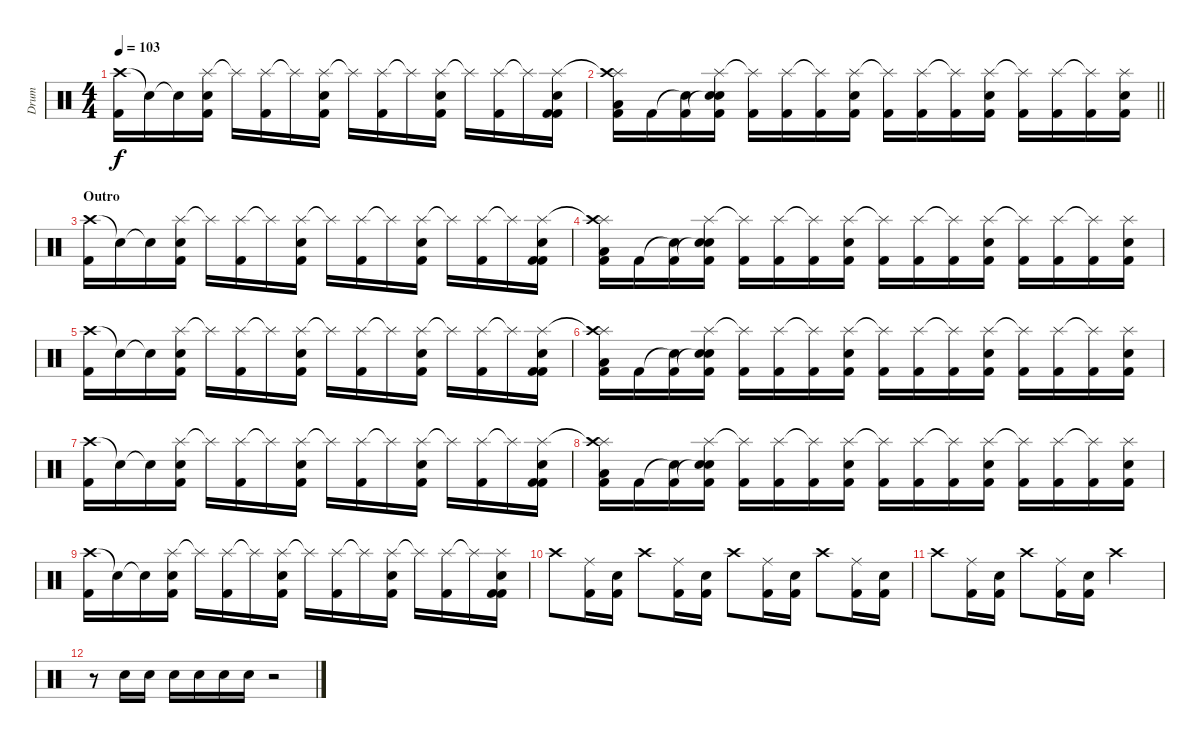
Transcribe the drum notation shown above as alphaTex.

\track ("Drum" "Drum") {instrument percussion}
\staff {score}
\articulation defaults
\ts (4 4)
\tempo 103
\clef neutral
\ks c
("Crash high (hit)" "Kick (hit) 2").16{dy f} "Snare (hit)"{t}.16 "Snare (hit)"{t}.16 ("Splash (hit)" "Electric Snare (hit)" "Kick (hit) 2").16 "Splash (hit)"{t}.16 ("Splash (hit)" "Kick (hit) 2").16 "Splash (hit)"{t}.16 ("Splash (hit)" "Electric Snare (hit)" "Kick (hit) 2").16 "Splash (hit)"{t}.16 ("Splash (hit)" "Kick (hit) 2").16 "Splash (hit)"{t}.16 ("Splash (hit)" "Electric Snare (hit)" "Kick (hit) 2").16 "Splash (hit)"{t}.16 ("Splash (hit)" "Kick (hit) 2").16 "Splash (hit)"{t}.16 ("Splash (hit)" "Electric Snare (hit)" "Kick (hit) 2" "Kick (hit) 2").16 |
\barLineRight lightlight
("Splash (hit)"{t} "Crash high (hit)" "Low Tom (hit)" "Kick (hit) 2").16 "Kick (hit) 2".16 ("Snare (hit)"{t} "Kick (hit) 2").16 ("Splash (hit)" "Snare (hit)"{t} "Electric Snare (hit)" "Kick (hit) 2").16 ("Splash (hit)"{t} "Kick (hit) 2").16 ("Splash (hit)" "Kick (hit) 2").16 ("Splash (hit)"{t} "Kick (hit) 2").16 ("Splash (hit)" "Electric Snare (hit)" "Kick (hit) 2").16 ("Splash (hit)"{t} "Kick (hit) 2").16 ("Splash (hit)" "Kick (hit) 2").16 ("Splash (hit)"{t} "Kick (hit) 2").16 ("Splash (hit)" "Electric Snare (hit)" "Kick (hit) 2").16 ("Splash (hit)"{t} "Kick (hit) 2").16 ("Splash (hit)" "Kick (hit) 2").16 ("Splash (hit)"{t} "Kick (hit) 2").16 ("Splash (hit)" "Electric Snare (hit)" "Kick (hit) 2").16 |
\section ("" "Outro")
("Crash high (hit)" "Kick (hit) 2").16 "Snare (hit)"{t}.16 "Snare (hit)"{t}.16 ("Splash (hit)" "Electric Snare (hit)" "Kick (hit) 2").16 "Splash (hit)"{t}.16 ("Splash (hit)" "Kick (hit) 2").16 "Splash (hit)"{t}.16 ("Splash (hit)" "Electric Snare (hit)" "Kick (hit) 2").16 "Splash (hit)"{t}.16 ("Splash (hit)" "Kick (hit) 2").16 "Splash (hit)"{t}.16 ("Splash (hit)" "Electric Snare (hit)" "Kick (hit) 2").16 "Splash (hit)"{t}.16 ("Splash (hit)" "Kick (hit) 2").16 "Splash (hit)"{t}.16 ("Splash (hit)" "Electric Snare (hit)" "Kick (hit) 2" "Kick (hit) 2").16 |
("Splash (hit)"{t} "Crash high (hit)" "Low Tom (hit)" "Kick (hit) 2").16 "Kick (hit) 2".16 ("Snare (hit)"{t} "Kick (hit) 2").16 ("Splash (hit)" "Snare (hit)"{t} "Electric Snare (hit)" "Kick (hit) 2").16 ("Splash (hit)"{t} "Kick (hit) 2").16 ("Splash (hit)" "Kick (hit) 2").16 ("Splash (hit)"{t} "Kick (hit) 2").16 ("Splash (hit)" "Electric Snare (hit)" "Kick (hit) 2").16 ("Splash (hit)"{t} "Kick (hit) 2").16 ("Splash (hit)" "Kick (hit) 2").16 ("Splash (hit)"{t} "Kick (hit) 2").16 ("Splash (hit)" "Electric Snare (hit)" "Kick (hit) 2").16 ("Splash (hit)"{t} "Kick (hit) 2").16 ("Splash (hit)" "Kick (hit) 2").16 ("Splash (hit)"{t} "Kick (hit) 2").16 ("Splash (hit)" "Electric Snare (hit)" "Kick (hit) 2").16 |
("Crash high (hit)" "Kick (hit) 2").16 "Snare (hit)"{t}.16 "Snare (hit)"{t}.16 ("Splash (hit)" "Electric Snare (hit)" "Kick (hit) 2").16 "Splash (hit)"{t}.16 ("Splash (hit)" "Kick (hit) 2").16 "Splash (hit)"{t}.16 ("Splash (hit)" "Electric Snare (hit)" "Kick (hit) 2").16 "Splash (hit)"{t}.16 ("Splash (hit)" "Kick (hit) 2").16 "Splash (hit)"{t}.16 ("Splash (hit)" "Electric Snare (hit)" "Kick (hit) 2").16 "Splash (hit)"{t}.16 ("Splash (hit)" "Kick (hit) 2").16 "Splash (hit)"{t}.16 ("Splash (hit)" "Electric Snare (hit)" "Kick (hit) 2" "Kick (hit) 2").16 |
("Splash (hit)"{t} "Crash high (hit)" "Low Tom (hit)" "Kick (hit) 2").16 "Kick (hit) 2".16 ("Snare (hit)"{t} "Kick (hit) 2").16 ("Splash (hit)" "Snare (hit)"{t} "Electric Snare (hit)" "Kick (hit) 2").16 ("Splash (hit)"{t} "Kick (hit) 2").16 ("Splash (hit)" "Kick (hit) 2").16 ("Splash (hit)"{t} "Kick (hit) 2").16 ("Splash (hit)" "Electric Snare (hit)" "Kick (hit) 2").16 ("Splash (hit)"{t} "Kick (hit) 2").16 ("Splash (hit)" "Kick (hit) 2").16 ("Splash (hit)"{t} "Kick (hit) 2").16 ("Splash (hit)" "Electric Snare (hit)" "Kick (hit) 2").16 ("Splash (hit)"{t} "Kick (hit) 2").16 ("Splash (hit)" "Kick (hit) 2").16 ("Splash (hit)"{t} "Kick (hit) 2").16 ("Splash (hit)" "Electric Snare (hit)" "Kick (hit) 2").16 |
("Crash high (hit)" "Kick (hit) 2").16 "Snare (hit)"{t}.16 "Snare (hit)"{t}.16 ("Splash (hit)" "Electric Snare (hit)" "Kick (hit) 2").16 "Splash (hit)"{t}.16 ("Splash (hit)" "Kick (hit) 2").16 "Splash (hit)"{t}.16 ("Splash (hit)" "Electric Snare (hit)" "Kick (hit) 2").16 "Splash (hit)"{t}.16 ("Splash (hit)" "Kick (hit) 2").16 "Splash (hit)"{t}.16 ("Splash (hit)" "Electric Snare (hit)" "Kick (hit) 2").16 "Splash (hit)"{t}.16 ("Splash (hit)" "Kick (hit) 2").16 "Splash (hit)"{t}.16 ("Splash (hit)" "Electric Snare (hit)" "Kick (hit) 2" "Kick (hit) 2").16 |
("Splash (hit)"{t} "Crash high (hit)" "Low Tom (hit)" "Kick (hit) 2").16 "Kick (hit) 2".16 ("Snare (hit)"{t} "Kick (hit) 2").16 ("Splash (hit)" "Snare (hit)"{t} "Electric Snare (hit)" "Kick (hit) 2").16 ("Splash (hit)"{t} "Kick (hit) 2").16 ("Splash (hit)" "Kick (hit) 2").16 ("Splash (hit)"{t} "Kick (hit) 2").16 ("Splash (hit)" "Electric Snare (hit)" "Kick (hit) 2").16 ("Splash (hit)"{t} "Kick (hit) 2").16 ("Splash (hit)" "Kick (hit) 2").16 ("Splash (hit)"{t} "Kick (hit) 2").16 ("Splash (hit)" "Electric Snare (hit)" "Kick (hit) 2").16 ("Splash (hit)"{t} "Kick (hit) 2").16 ("Splash (hit)" "Kick (hit) 2").16 ("Splash (hit)"{t} "Kick (hit) 2").16 ("Splash (hit)" "Electric Snare (hit)" "Kick (hit) 2").16 |
("Crash high (hit)" "Kick (hit) 2").16 "Snare (hit)"{t}.16 "Snare (hit)"{t}.16 ("Splash (hit)" "Electric Snare (hit)" "Kick (hit) 2").16 "Splash (hit)"{t}.16 ("Splash (hit)" "Kick (hit) 2").16 "Splash (hit)"{t}.16 ("Splash (hit)" "Electric Snare (hit)" "Kick (hit) 2").16 "Splash (hit)"{t}.16 ("Splash (hit)" "Kick (hit) 2").16 "Splash (hit)"{t}.16 ("Splash (hit)" "Electric Snare (hit)" "Kick (hit) 2").16 "Splash (hit)"{t}.16 ("Splash (hit)" "Kick (hit) 2").16 "Splash (hit)"{t}.16 ("Splash (hit)" "Electric Snare (hit)" "Kick (hit) 2" "Kick (hit) 2").16 |
"Crash high (hit)".8 ("Ride (middle)" "Kick (hit) 2").16 ("Electric Snare (hit)" "Kick (hit) 2").16 "Crash high (hit)".8 ("Ride (middle)" "Kick (hit) 2").16 ("Electric Snare (hit)" "Kick (hit) 2").16 "Crash high (hit)".8 ("Ride (middle)" "Kick (hit) 2").16 ("Electric Snare (hit)" "Kick (hit) 2").16 "Crash high (hit)".8 ("Ride (middle)" "Kick (hit) 2").16 ("Electric Snare (hit)" "Kick (hit) 2").16 |
"Crash high (hit)".8 ("Ride (middle)" "Kick (hit) 2").16 ("Electric Snare (hit)" "Kick (hit) 2").16 "Crash high (hit)".8 ("Ride (middle)" "Kick (hit) 2").16 ("Electric Snare (hit)" "Kick (hit) 2").16 "Crash high (hit)".2 |
r.8 "Electric Snare (hit)".16 "Electric Snare (hit)".16 "Electric Snare (hit)".16 "Electric Snare (hit)".16 "Electric Snare (hit)".16 "Electric Snare (hit)".16 r.2
